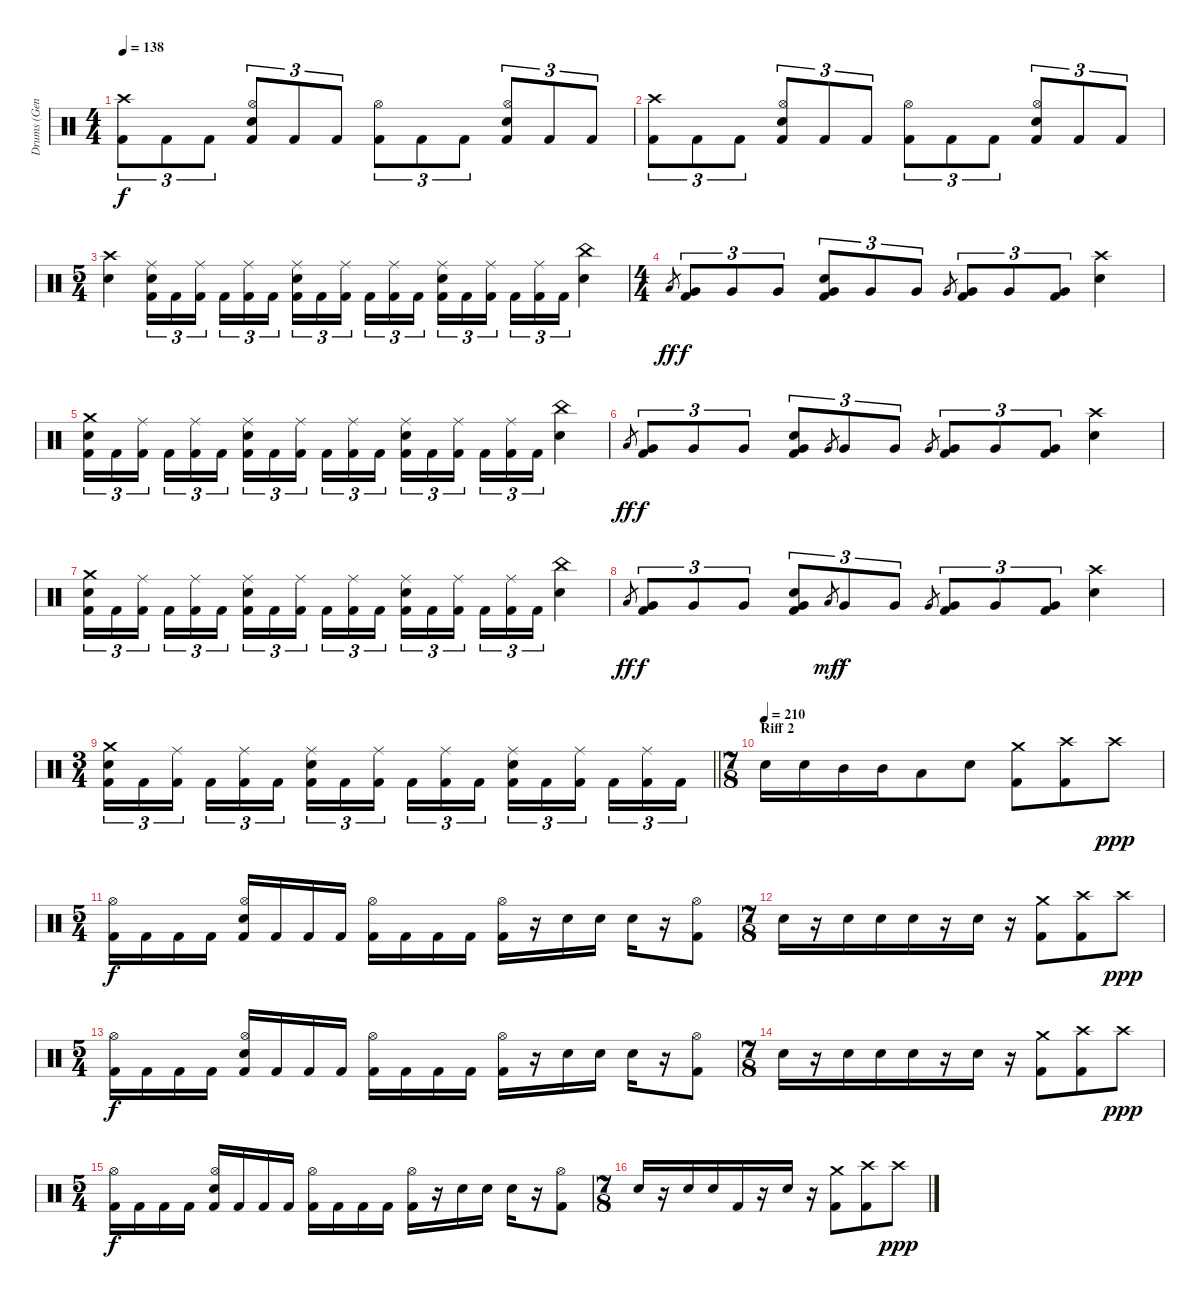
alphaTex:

\track ("Drums (Gene Hoglan)" "Drums (Gen") {instrument percussion}
\staff {score}
\articulation defaults
\ts (4 4)
\tempo 138
\clef neutral
\ks c
("Crash high (hit)" "Kick (hit) 2").8{tu (3 2) dy f} "Kick (hit) 2".8{tu (3 2)} "Kick (hit) 2".8{tu (3 2)} ("Hi-Hat (open)" "Snare (hit) 2" "Kick (hit) 2").8{tu (3 2)} "Kick (hit) 2".8{tu (3 2)} "Kick (hit) 2".8{tu (3 2)} ("Hi-Hat (open)" "Kick (hit) 2").8{tu (3 2)} "Kick (hit) 2".8{tu (3 2)} "Kick (hit) 2".8{tu (3 2)} ("Hi-Hat (open)" "Snare (hit) 2" "Kick (hit) 2").8{tu (3 2)} "Kick (hit) 2".8{tu (3 2)} "Kick (hit) 2".8{tu (3 2)} |
("Crash high (hit)" "Kick (hit) 2").8{tu (3 2)} "Kick (hit) 2".8{tu (3 2)} "Kick (hit) 2".8{tu (3 2)} ("Hi-Hat (open)" "Snare (hit) 2" "Kick (hit) 2").8{tu (3 2)} "Kick (hit) 2".8{tu (3 2)} "Kick (hit) 2".8{tu (3 2)} ("Hi-Hat (open)" "Kick (hit) 2").8{tu (3 2)} "Kick (hit) 2".8{tu (3 2)} "Kick (hit) 2".8{tu (3 2)} ("Hi-Hat (open)" "Snare (hit) 2" "Kick (hit) 2").8{tu (3 2)} "Kick (hit) 2".8{tu (3 2)} "Kick (hit) 2".8{tu (3 2)} |
\ts (5 4)
("Crash high (hit)" "Snare (hit) 2").4 ("Ride (middle)" "Snare (hit) 2" "Kick (hit) 2").16{tu (3 2)} "Kick (hit) 2".16{tu (3 2)} ("Ride (middle)" "Kick (hit) 2").16{tu (3 2) beam splitsecondary} "Kick (hit) 2".16{tu (3 2)} ("Ride (middle)" "Kick (hit) 2").16{tu (3 2)} "Kick (hit) 2".16{tu (3 2)} ("Ride (middle)" "Snare (hit) 2" "Kick (hit) 2").16{tu (3 2)} "Kick (hit) 2".16{tu (3 2)} ("Ride (middle)" "Kick (hit) 2").16{tu (3 2) beam splitsecondary} "Kick (hit) 2".16{tu (3 2)} ("Ride (middle)" "Kick (hit) 2").16{tu (3 2)} "Kick (hit) 2".16{tu (3 2)} ("Ride (middle)" "Snare (hit) 2" "Kick (hit) 2").16{tu (3 2)} "Kick (hit) 2".16{tu (3 2)} ("Ride (middle)" "Kick (hit) 2").16{tu (3 2) beam splitsecondary} "Kick (hit) 2".16{tu (3 2)} ("Ride (middle)" "Kick (hit) 2").16{tu (3 2)} "Kick (hit) 2".16{tu (3 2)} ("China (hit)" "Snare (hit) 2").4 |
\ts (4 4)
"Low Floor Tom (hit)".8{gr dy ff} ("Very Low Tom (hit)" "Kick (hit) 2").8{tu (3 2) dy f} "Very Low Tom (hit)".8{tu (3 2)} "Very Low Tom (hit)".8{tu (3 2)} ("Snare (hit) 2" "Very Low Tom (hit)" "Kick (hit) 2").8{tu (3 2)} "Very Low Tom (hit)".8{tu (3 2)} "Very Low Tom (hit)".8{tu (3 2)} "Very Low Tom (hit)".8{gr} ("Very Low Tom (hit)" "Kick (hit) 2").8{tu (3 2)} "Very Low Tom (hit)".8{tu (3 2)} ("Very Low Tom (hit)" "Kick (hit) 2").8{tu (3 2)} ("Crash high (hit)" "Snare (hit) 2").4 |
("Crash medium (hit)" "Snare (hit) 2" "Kick (hit) 2").16{tu (3 2)} "Kick (hit) 2".16{tu (3 2)} ("Ride (middle)" "Kick (hit) 2").16{tu (3 2) beam splitsecondary} "Kick (hit) 2".16{tu (3 2)} ("Ride (middle)" "Kick (hit) 2").16{tu (3 2)} "Kick (hit) 2".16{tu (3 2)} ("Ride (middle)" "Snare (hit) 2" "Kick (hit) 2").16{tu (3 2)} "Kick (hit) 2".16{tu (3 2)} ("Ride (middle)" "Kick (hit) 2").16{tu (3 2) beam splitsecondary} "Kick (hit) 2".16{tu (3 2)} ("Ride (middle)" "Kick (hit) 2").16{tu (3 2)} "Kick (hit) 2".16{tu (3 2)} ("Ride (middle)" "Snare (hit) 2" "Kick (hit) 2").16{tu (3 2)} "Kick (hit) 2".16{tu (3 2)} ("Ride (middle)" "Kick (hit) 2").16{tu (3 2) beam splitsecondary} "Kick (hit) 2".16{tu (3 2)} ("Ride (middle)" "Kick (hit) 2").16{tu (3 2)} "Kick (hit) 2".16{tu (3 2)} ("China (hit)" "Snare (hit) 2").4 |
"Low Floor Tom (hit)".8{gr dy ff} ("Very Low Tom (hit)" "Kick (hit) 2").8{tu (3 2) dy f} "Very Low Tom (hit)".8{tu (3 2)} "Very Low Tom (hit)".8{tu (3 2)} ("Snare (hit) 2" "Very Low Tom (hit)" "Kick (hit) 2").8{tu (3 2)} "Very Low Tom (hit)".8{gr} "Very Low Tom (hit)".8{tu (3 2)} "Very Low Tom (hit)".8{tu (3 2)} "Very Low Tom (hit)".8{gr} ("Very Low Tom (hit)" "Kick (hit) 2").8{tu (3 2)} "Very Low Tom (hit)".8{tu (3 2)} ("Very Low Tom (hit)" "Kick (hit) 2").8{tu (3 2)} ("Crash high (hit)" "Snare (hit) 2").4 |
("Crash medium (hit)" "Snare (hit) 2" "Kick (hit) 2").16{tu (3 2)} "Kick (hit) 2".16{tu (3 2)} ("Ride (middle)" "Kick (hit) 2").16{tu (3 2) beam splitsecondary} "Kick (hit) 2".16{tu (3 2)} ("Ride (middle)" "Kick (hit) 2").16{tu (3 2)} "Kick (hit) 2".16{tu (3 2)} ("Ride (middle)" "Snare (hit) 2" "Kick (hit) 2").16{tu (3 2)} "Kick (hit) 2".16{tu (3 2)} ("Ride (middle)" "Kick (hit) 2").16{tu (3 2) beam splitsecondary} "Kick (hit) 2".16{tu (3 2)} ("Ride (middle)" "Kick (hit) 2").16{tu (3 2)} "Kick (hit) 2".16{tu (3 2)} ("Ride (middle)" "Snare (hit) 2" "Kick (hit) 2").16{tu (3 2)} "Kick (hit) 2".16{tu (3 2)} ("Ride (middle)" "Kick (hit) 2").16{tu (3 2) beam splitsecondary} "Kick (hit) 2".16{tu (3 2)} ("Ride (middle)" "Kick (hit) 2").16{tu (3 2)} "Kick (hit) 2".16{tu (3 2)} ("China (hit)" "Snare (hit) 2").4 |
"Low Floor Tom (hit)".8{gr dy ff} ("Very Low Tom (hit)" "Kick (hit) 2").8{tu (3 2) dy f} "Very Low Tom (hit)".8{tu (3 2)} "Very Low Tom (hit)".8{tu (3 2)} ("Snare (hit) 2" "Very Low Tom (hit)" "Kick (hit) 2").8{tu (3 2)} "Low Tom (hit)".8{gr dy mf} "Very Low Tom (hit)".8{tu (3 2) dy f} "Very Low Tom (hit)".8{tu (3 2)} "Very Low Tom (hit)".8{gr} ("Very Low Tom (hit)" "Kick (hit) 2").8{tu (3 2)} "Very Low Tom (hit)".8{tu (3 2)} ("Very Low Tom (hit)" "Kick (hit) 2").8{tu (3 2)} ("Crash high (hit)" "Snare (hit) 2").4 |
\ts (3 4)
\barLineRight lightlight
("Crash medium (hit)" "Snare (hit) 2" "Kick (hit) 2").16{tu (3 2)} "Kick (hit) 2".16{tu (3 2)} ("Ride (middle)" "Kick (hit) 2").16{tu (3 2) beam splitsecondary} "Kick (hit) 2".16{tu (3 2)} ("Ride (middle)" "Kick (hit) 2").16{tu (3 2)} "Kick (hit) 2".16{tu (3 2)} ("Ride (middle)" "Snare (hit) 2" "Kick (hit) 2").16{tu (3 2)} "Kick (hit) 2".16{tu (3 2)} ("Ride (middle)" "Kick (hit) 2").16{tu (3 2) beam splitsecondary} "Kick (hit) 2".16{tu (3 2)} ("Ride (middle)" "Kick (hit) 2").16{tu (3 2)} "Kick (hit) 2".16{tu (3 2)} ("Ride (middle)" "Snare (hit) 2" "Kick (hit) 2").16{tu (3 2)} "Kick (hit) 2".16{tu (3 2)} ("Ride (middle)" "Kick (hit) 2").16{tu (3 2) beam splitsecondary} "Kick (hit) 2".16{tu (3 2)} ("Ride (middle)" "Kick (hit) 2").16{tu (3 2)} "Kick (hit) 2".16{tu (3 2)} |
\ts (7 8)
\section ("" "Riff 2")
\tempo (210)
"Snare (hit) 2".16 "Snare (hit) 2".16 "Mid Tom (hit)".16 "Mid Tom (hit)".16 "Low Tom (hit)".8 "Snare (hit) 2".8 ("Crash medium (hit)" "Kick (hit) 2").8 ("Crash high (hit)" "Kick (hit) 2").8 "Crash high (hit)".8{dy ppp} |
\ts (5 4)
("Hi-Hat (open)" "Kick (hit) 2").16{dy f} "Kick (hit) 2".16 "Kick (hit) 2".16 "Kick (hit) 2".16 ("Hi-Hat (open)" "Snare (hit) 2" "Kick (hit) 2").16 "Kick (hit) 2".16 "Kick (hit) 2".16 "Kick (hit) 2".16 ("Hi-Hat (open)" "Kick (hit) 2").16 "Kick (hit) 2".16 "Kick (hit) 2".16 "Kick (hit) 2".16 ("Hi-Hat (open)" "Kick (hit) 2").16 r.16 "Snare (hit) 2".16 "Snare (hit) 2".16 "Snare (hit) 2".16 r.16 ("Hi-Hat (open)" "Kick (hit) 2").8 |
\ts (7 8)
"Snare (hit) 2".16 r.16 "Snare (hit) 2".16 "Snare (hit) 2".16 "Snare (hit) 2".16 r.16 "Snare (hit) 2".16 r.16 ("Crash medium (hit)" "Kick (hit) 2").8 ("Crash high (hit)" "Kick (hit) 2").8 "Crash high (hit)".8{dy ppp} |
\ts (5 4)
("Hi-Hat (open)" "Kick (hit) 2").16{dy f} "Kick (hit) 2".16 "Kick (hit) 2".16 "Kick (hit) 2".16 ("Hi-Hat (open)" "Snare (hit) 2" "Kick (hit) 2").16 "Kick (hit) 2".16 "Kick (hit) 2".16 "Kick (hit) 2".16 ("Hi-Hat (open)" "Kick (hit) 2").16 "Kick (hit) 2".16 "Kick (hit) 2".16 "Kick (hit) 2".16 ("Hi-Hat (open)" "Kick (hit) 2").16 r.16 "Snare (hit) 2".16 "Snare (hit) 2".16 "Snare (hit) 2".16 r.16 ("Hi-Hat (open)" "Kick (hit) 2").8 |
\ts (7 8)
"Snare (hit) 2".16 r.16 "Snare (hit) 2".16 "Snare (hit) 2".16 "Snare (hit) 2".16 r.16 "Snare (hit) 2".16 r.16 ("Crash medium (hit)" "Kick (hit) 2").8 ("Crash high (hit)" "Kick (hit) 2").8 "Crash high (hit)".8{dy ppp} |
\ts (5 4)
("Hi-Hat (open)" "Kick (hit) 2").16{dy f} "Kick (hit) 2".16 "Kick (hit) 2".16 "Kick (hit) 2".16 ("Hi-Hat (open)" "Snare (hit) 2" "Kick (hit) 2").16 "Kick (hit) 2".16 "Kick (hit) 2".16 "Kick (hit) 2".16 ("Hi-Hat (open)" "Kick (hit) 2").16 "Kick (hit) 2".16 "Kick (hit) 2".16 "Kick (hit) 2".16 ("Hi-Hat (open)" "Kick (hit) 2").16 r.16 "Snare (hit) 2".16 "Snare (hit) 2".16 "Snare (hit) 2".16 r.16 ("Hi-Hat (open)" "Kick (hit) 2").8 |
\ts (7 8)
"Snare (hit) 2".16 r.16 "Snare (hit) 2".16 "Snare (hit) 2".16 "Kick (hit) 2".16 r.16 "Snare (hit) 2".16 r.16 ("Crash medium (hit)" "Kick (hit) 2").8 ("Crash high (hit)" "Kick (hit) 2").8 "Crash high (hit)".8{dy ppp}
